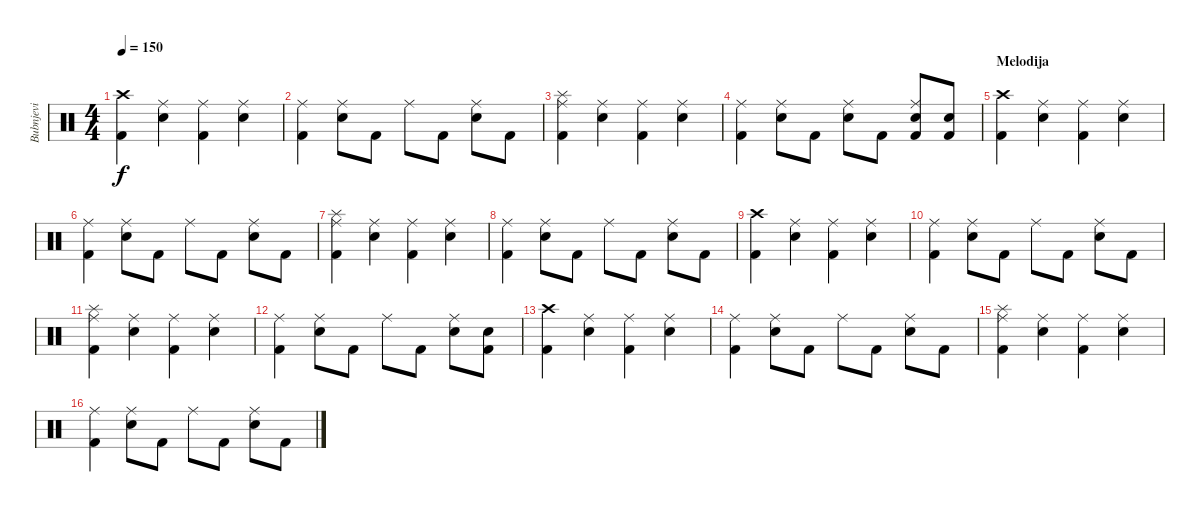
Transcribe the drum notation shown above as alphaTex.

\track ("Bubnjevi" "Bubnjevi") {instrument percussion}
\staff {score}
\articulation defaults
\ts (4 4)
\tempo 150
\clef neutral
\ks c
("Crash high (hit)" "Kick (hit) 2").4{dy f} ("Ride (middle)" "Snare (hit) 2").4 ("Ride (middle)" "Kick (hit) 2").4 ("Ride (middle)" "Snare (hit) 2").4 |
("Ride (middle)" "Kick (hit) 2").4 ("Ride (middle)" "Snare (hit) 2").8 "Kick (hit) 2".8 "Ride (middle)".8 "Kick (hit) 2".8 ("Ride (middle)" "Snare (hit) 2").8 "Kick (hit) 2".8 |
("Splash (hit)" "Ride (middle)" "Kick (hit) 2").4 ("Ride (middle)" "Snare (hit) 2").4 ("Ride (middle)" "Kick (hit) 2").4 ("Ride (middle)" "Snare (hit) 2").4 |
("Ride (middle)" "Kick (hit) 2").4 ("Ride (middle)" "Snare (hit) 2").8 "Kick (hit) 2".8 ("Ride (middle)" "Snare (hit) 2").8 "Kick (hit) 2".8 ("Ride (middle)" "Snare (hit) 2" "Kick (hit) 2").8 ("Snare (hit) 2" "Kick (hit) 2").8 |
\section ("" "Melodija")
("Crash high (hit)" "Kick (hit) 2").4 ("Ride (middle)" "Snare (hit) 2").4 ("Ride (middle)" "Kick (hit) 2").4 ("Ride (middle)" "Snare (hit) 2").4 |
("Ride (middle)" "Kick (hit) 2").4 ("Ride (middle)" "Snare (hit) 2").8 "Kick (hit) 2".8 "Ride (middle)".8 "Kick (hit) 2".8 ("Ride (middle)" "Snare (hit) 2").8 "Kick (hit) 2".8 |
("Splash (hit)" "Ride (middle)" "Kick (hit) 2").4 ("Ride (middle)" "Snare (hit) 2").4 ("Ride (middle)" "Kick (hit) 2").4 ("Ride (middle)" "Snare (hit) 2").4 |
("Ride (middle)" "Kick (hit) 2").4 ("Ride (middle)" "Snare (hit) 2").8 "Kick (hit) 2".8 "Ride (middle)".8 "Kick (hit) 2".8 ("Ride (middle)" "Snare (hit) 2").8 "Kick (hit) 2".8 |
("Crash high (hit)" "Kick (hit) 2").4 ("Ride (middle)" "Snare (hit) 2").4 ("Ride (middle)" "Kick (hit) 2").4 ("Ride (middle)" "Snare (hit) 2").4 |
("Ride (middle)" "Kick (hit) 2").4 ("Ride (middle)" "Snare (hit) 2").8 "Kick (hit) 2".8 "Ride (middle)".8 "Kick (hit) 2".8 ("Ride (middle)" "Snare (hit) 2").8 "Kick (hit) 2".8 |
("Splash (hit)" "Ride (middle)" "Kick (hit) 2").4 ("Ride (middle)" "Snare (hit) 2").4 ("Ride (middle)" "Kick (hit) 2").4 ("Ride (middle)" "Snare (hit) 2").4 |
("Ride (middle)" "Kick (hit) 2").4 ("Ride (middle)" "Snare (hit) 2").8 "Kick (hit) 2".8 "Ride (middle)".8 "Kick (hit) 2".8 ("Ride (middle)" "Snare (hit) 2").8 ("Snare (hit) 2" "Kick (hit) 2").8 |
("Crash high (hit)" "Kick (hit) 2").4 ("Ride (middle)" "Snare (hit) 2").4 ("Ride (middle)" "Kick (hit) 2").4 ("Ride (middle)" "Snare (hit) 2").4 |
("Ride (middle)" "Kick (hit) 2").4 ("Ride (middle)" "Snare (hit) 2").8 "Kick (hit) 2".8 "Ride (middle)".8 "Kick (hit) 2".8 ("Ride (middle)" "Snare (hit) 2").8 "Kick (hit) 2".8 |
("Splash (hit)" "Ride (middle)" "Kick (hit) 2").4 ("Ride (middle)" "Snare (hit) 2").4 ("Ride (middle)" "Kick (hit) 2").4 ("Ride (middle)" "Snare (hit) 2").4 |
("Ride (middle)" "Kick (hit) 2").4 ("Ride (middle)" "Snare (hit) 2").8 "Kick (hit) 2".8 "Ride (middle)".8 "Kick (hit) 2".8 ("Ride (middle)" "Snare (hit) 2").8 "Kick (hit) 2".8
